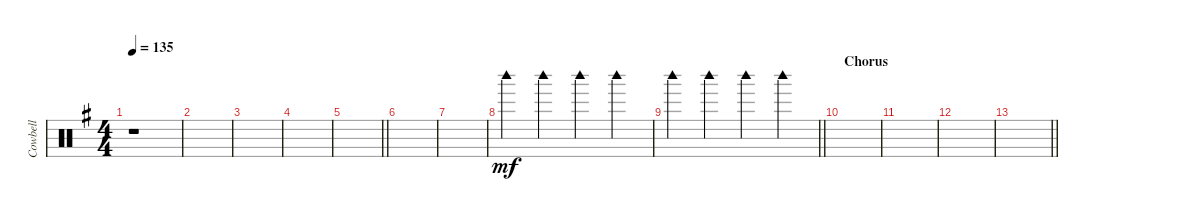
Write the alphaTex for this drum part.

\track ("Cowbell" "Cowbell") {instrument percussion}
\staff {score}
\articulation defaults
\ts (4 4)
\tempo 135
\clef neutral
\ks g
r.1{dy mf} |
|
|
|
\barLineRight lightlight
|
|
|
"Woodblock high (hit)".4 "Woodblock high (hit)".4 "Woodblock high (hit)".4 "Woodblock high (hit)".4 |
\barLineRight lightlight "Woodblock high (hit)".4 "Woodblock high (hit)".4 "Woodblock high (hit)".4 "Woodblock high (hit)".4
|
\section ("" "Chorus")
|
|
|
\barLineRight lightlight
